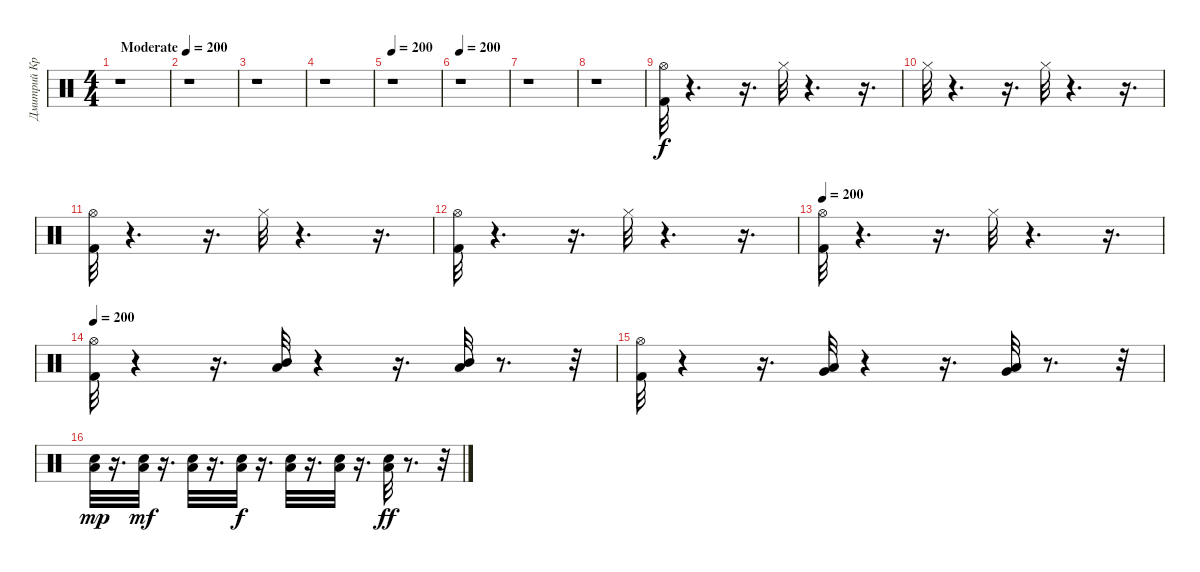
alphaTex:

\track ("Дмитрий Кривенков" "Дмитрий Кр") {instrument percussion}
\staff {score}
\articulation defaults
\ts (4 4)
\tempo (200 "Moderate")
\clef neutral
\ks c
r.1{dy f} |
r.1 |
r.1 |
r.1 |
\tempo 200
r.1 |
\tempo 200
r.1 |
r.1 |
r.1 |
("Hi-Hat (open)" "Kick (hit) 2").32 r.4{d} r.16{d} "Hi-Hat (closed)".32 r.4{d} r.16{d} |
"Hi-Hat (closed)".32 r.4{d} r.16{d} "Hi-Hat (closed)".32 r.4{d} r.16{d} |
("Hi-Hat (open)" "Kick (hit) 2").32 r.4{d} r.16{d} "Hi-Hat (closed)".32 r.4{d} r.16{d} |
("Hi-Hat (open)" "Kick (hit) 2").32 r.4{d} r.16{d} "Hi-Hat (closed)".32 r.4{d} r.16{d} |
\tempo 200
("Hi-Hat (open)" "Kick (hit) 2").32 r.4{d} r.16{d} "Hi-Hat (closed)".32 r.4{d} r.16{d} |
\tempo 200
("Hi-Hat (open)" "Kick (hit) 2").32 r.4 r.16{d} ("Mid Tom (hit)" "Low Tom (hit)").32 r.4 r.16{d} ("Mid Tom (hit)" "Low Tom (hit)").32 r.8{d} r.32 |
("Hi-Hat (open)" "Kick (hit) 2").32 r.4 r.16{d} ("Very Low Tom (hit)" "Low Tom (hit)").32 r.4 r.16{d} ("Very Low Tom (hit)" "Low Tom (hit)").32 r.8{d} r.32 |
("Electric Snare (hit)" "Low Floor Tom (hit)").32{dy mp} r.16{d} ("Electric Snare (hit)" "Low Floor Tom (hit)").32{dy mf} r.16{d} ("Electric Snare (hit)" "Low Floor Tom (hit)").32 r.16{d} ("Electric Snare (hit)" "Low Floor Tom (hit)").32{dy f} r.16{d} ("Electric Snare (hit)" "Low Floor Tom (hit)").32 r.16{d} ("Electric Snare (hit)" "Low Floor Tom (hit)").32 r.16{d} ("Electric Snare (hit)" "Low Floor Tom (hit)").32{dy ff} r.8{d} r.32
